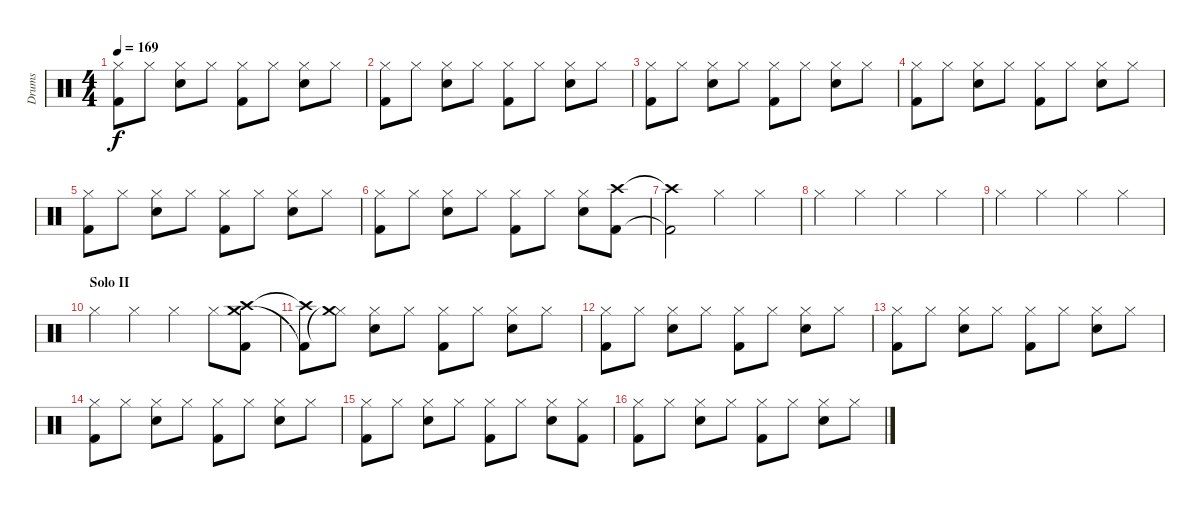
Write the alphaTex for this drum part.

\track ("Drums" "Drums") {instrument percussion}
\staff {score}
\articulation defaults
\ts (4 4)
\tempo 169
\clef neutral
\ks c
("Hi-Hat (closed)" "Kick (hit) 2").8{dy f} "Hi-Hat (closed)".8 ("Hi-Hat (closed)" "Snare (hit) 2").8 "Hi-Hat (closed)".8 ("Hi-Hat (closed)" "Kick (hit) 2").8 "Hi-Hat (closed)".8 ("Hi-Hat (closed)" "Snare (hit) 2").8 "Hi-Hat (closed)".8 |
("Hi-Hat (closed)" "Kick (hit) 2").8 "Hi-Hat (closed)".8 ("Hi-Hat (closed)" "Snare (hit) 2").8 "Hi-Hat (closed)".8 ("Hi-Hat (closed)" "Kick (hit) 2").8 "Hi-Hat (closed)".8 ("Hi-Hat (closed)" "Snare (hit) 2").8 "Hi-Hat (closed)".8 |
("Hi-Hat (closed)" "Kick (hit) 2").8 "Hi-Hat (closed)".8 ("Hi-Hat (closed)" "Snare (hit) 2").8 "Hi-Hat (closed)".8 ("Hi-Hat (closed)" "Kick (hit) 2").8 "Hi-Hat (closed)".8 ("Hi-Hat (closed)" "Snare (hit) 2").8 "Hi-Hat (closed)".8 |
("Hi-Hat (closed)" "Kick (hit) 2").8 "Hi-Hat (closed)".8 ("Hi-Hat (closed)" "Snare (hit) 2").8 "Hi-Hat (closed)".8 ("Hi-Hat (closed)" "Kick (hit) 2").8 "Hi-Hat (closed)".8 ("Hi-Hat (closed)" "Snare (hit) 2").8 "Hi-Hat (closed)".8 |
("Hi-Hat (closed)" "Kick (hit) 2").8 "Hi-Hat (closed)".8 ("Hi-Hat (closed)" "Snare (hit) 2").8 "Hi-Hat (closed)".8 ("Hi-Hat (closed)" "Kick (hit) 2").8 "Hi-Hat (closed)".8 ("Hi-Hat (closed)" "Snare (hit) 2").8 "Hi-Hat (closed)".8 |
("Hi-Hat (closed)" "Kick (hit) 2").8 "Hi-Hat (closed)".8 ("Hi-Hat (closed)" "Snare (hit) 2").8 "Hi-Hat (closed)".8 ("Hi-Hat (closed)" "Kick (hit) 2").8 "Hi-Hat (closed)".8 ("Hi-Hat (closed)" "Snare (hit) 2").8 ("Crash high (hit)" "Kick (hit) 2").8 |
("Crash high (hit)"{t} "Kick (hit) 2"{t}).2 "Hi-Hat (closed)".4 "Hi-Hat (closed)".4 |
"Hi-Hat (closed)".4 "Hi-Hat (closed)".4 "Hi-Hat (closed)".4 "Hi-Hat (closed)".4 |
"Hi-Hat (closed)".4 "Hi-Hat (closed)".4 "Hi-Hat (closed)".4 "Hi-Hat (closed)".4 |
\section ("" "Solo II")
"Hi-Hat (closed)".4 "Hi-Hat (closed)".4 "Hi-Hat (closed)".4 "Hi-Hat (closed)".8 ("Crash high (hit)" "Crash medium (hit)" "Kick (hit) 2").8 |
("Crash high (hit)"{t} "Kick (hit) 2"{t}).8 ("Hi-Hat (closed)" "Crash medium (hit)"{t}).8 ("Hi-Hat (closed)" "Snare (hit) 2").8 "Hi-Hat (closed)".8 ("Hi-Hat (closed)" "Kick (hit) 2").8 "Hi-Hat (closed)".8 ("Hi-Hat (closed)" "Snare (hit) 2").8 "Hi-Hat (closed)".8 |
("Hi-Hat (closed)" "Kick (hit) 2").8 "Hi-Hat (closed)".8 ("Hi-Hat (closed)" "Snare (hit) 2").8 "Hi-Hat (closed)".8 ("Hi-Hat (closed)" "Kick (hit) 2").8 "Hi-Hat (closed)".8 ("Hi-Hat (closed)" "Snare (hit) 2").8 "Hi-Hat (closed)".8 |
("Hi-Hat (closed)" "Kick (hit) 2").8 "Hi-Hat (closed)".8 ("Hi-Hat (closed)" "Snare (hit) 2").8 "Hi-Hat (closed)".8 ("Hi-Hat (closed)" "Kick (hit) 2").8 "Hi-Hat (closed)".8 ("Hi-Hat (closed)" "Snare (hit) 2").8 "Hi-Hat (closed)".8 |
("Hi-Hat (closed)" "Kick (hit) 2").8 "Hi-Hat (closed)".8 ("Hi-Hat (closed)" "Snare (hit) 2").8 "Hi-Hat (closed)".8 ("Hi-Hat (closed)" "Kick (hit) 2").8 "Hi-Hat (closed)".8 ("Hi-Hat (closed)" "Snare (hit) 2").8 "Hi-Hat (closed)".8 |
("Hi-Hat (closed)" "Kick (hit) 2").8 "Hi-Hat (closed)".8 ("Hi-Hat (closed)" "Snare (hit) 2").8 "Hi-Hat (closed)".8 ("Hi-Hat (closed)" "Kick (hit) 2").8 "Hi-Hat (closed)".8 ("Hi-Hat (closed)" "Snare (hit) 2").8 ("Hi-Hat (closed)" "Kick (hit) 2").8 |
("Hi-Hat (closed)" "Kick (hit) 2").8 "Hi-Hat (closed)".8 ("Hi-Hat (closed)" "Snare (hit) 2").8 "Hi-Hat (closed)".8 ("Hi-Hat (closed)" "Kick (hit) 2").8 "Hi-Hat (closed)".8 ("Hi-Hat (closed)" "Snare (hit) 2").8 "Hi-Hat (closed)".8
